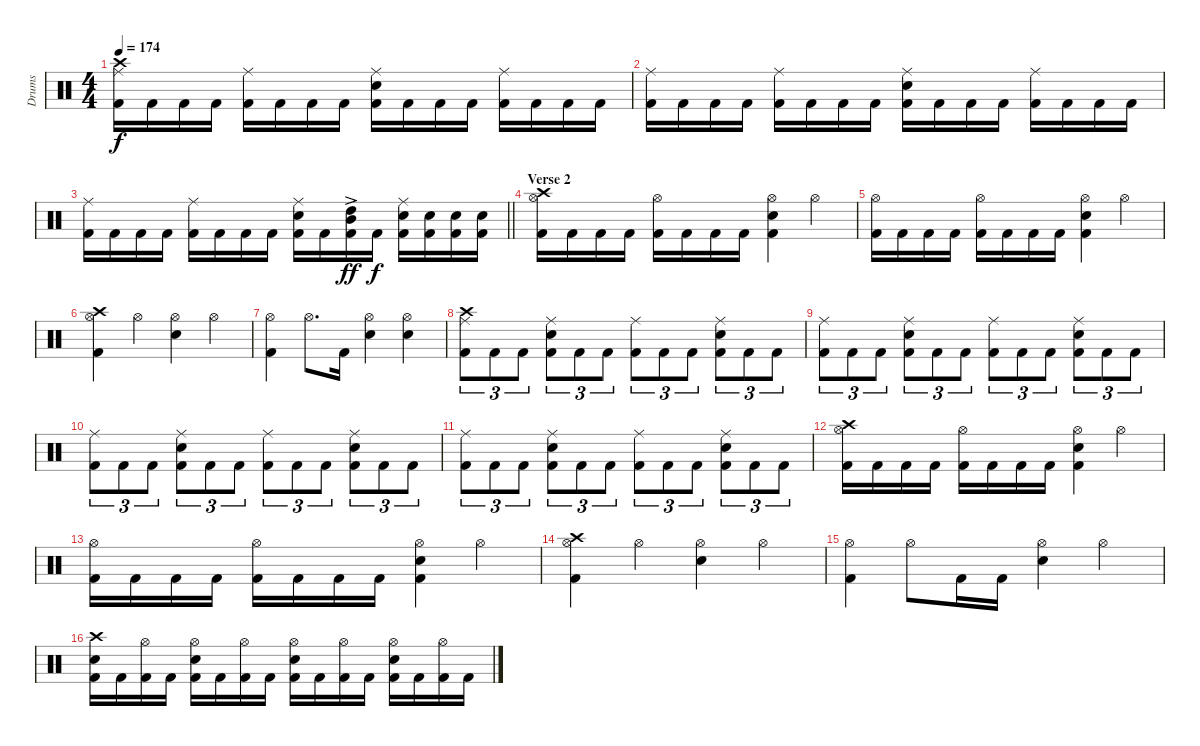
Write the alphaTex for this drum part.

\track ("Drums" "Drums") {instrument percussion}
\staff {score}
\articulation defaults
\ts (4 4)
\tempo 174
\clef neutral
\ks c
("Crash high (hit)" "Ride (middle)" "Kick (hit) 2").16{dy f} "Kick (hit) 2".16 "Kick (hit) 2".16 "Kick (hit) 2".16 ("Ride (middle)" "Kick (hit) 2").16 "Kick (hit) 2".16 "Kick (hit) 2".16 "Kick (hit) 2".16 ("Ride (middle)" "Snare (hit) 2" "Kick (hit) 2").16 "Kick (hit) 2".16 "Kick (hit) 2".16 "Kick (hit) 2".16 ("Ride (middle)" "Kick (hit) 2").16 "Kick (hit) 2".16 "Kick (hit) 2".16 "Kick (hit) 2".16 |
("Ride (middle)" "Kick (hit) 2").16 "Kick (hit) 2".16 "Kick (hit) 2".16 "Kick (hit) 2".16 ("Ride (middle)" "Kick (hit) 2").16 "Kick (hit) 2".16 "Kick (hit) 2".16 "Kick (hit) 2".16 ("Ride (middle)" "Snare (hit) 2" "Kick (hit) 2").16 "Kick (hit) 2".16 "Kick (hit) 2".16 "Kick (hit) 2".16 ("Ride (middle)" "Kick (hit) 2").16 "Kick (hit) 2".16 "Kick (hit) 2".16 "Kick (hit) 2".16 |
\barLineRight lightlight
("Ride (middle)" "Kick (hit) 2").16 "Kick (hit) 2".16 "Kick (hit) 2".16 "Kick (hit) 2".16 ("Ride (middle)" "Kick (hit) 2").16 "Kick (hit) 2".16 "Kick (hit) 2".16 "Kick (hit) 2".16 ("Ride (middle)" "Snare (hit) 2" "Kick (hit) 2").16 "Kick (hit) 2".16 ("High Tom (hit)"{ac} "Mid Tom (hit)"{ac} "Kick (hit) 2").16{dy ff} "Kick (hit) 2".16{dy f} ("Ride (middle)" "Snare (hit) 2" "Kick (hit) 2").16 ("Snare (hit) 2" "Kick (hit) 2").16 ("Snare (hit) 2" "Kick (hit) 2").16 ("Snare (hit) 2" "Kick (hit) 2").16 |
\section ("" "Verse 2")
("Hi-Hat (open)" "Crash high (hit)" "Kick (hit) 2").16 "Kick (hit) 2".16 "Kick (hit) 2".16 "Kick (hit) 2".16 ("Hi-Hat (open)" "Kick (hit) 2").16 "Kick (hit) 2".16 "Kick (hit) 2".16 "Kick (hit) 2".16 ("Hi-Hat (open)" "Snare (hit) 2" "Kick (hit) 2").4 "Hi-Hat (open)".4 |
("Hi-Hat (open)" "Kick (hit) 2").16 "Kick (hit) 2".16 "Kick (hit) 2".16 "Kick (hit) 2".16 ("Hi-Hat (open)" "Kick (hit) 2").16 "Kick (hit) 2".16 "Kick (hit) 2".16 "Kick (hit) 2".16 ("Hi-Hat (open)" "Snare (hit) 2" "Kick (hit) 2").4 "Hi-Hat (open)".4 |
("Hi-Hat (open)" "Crash high (hit)" "Kick (hit) 2").4 "Hi-Hat (open)".4 ("Hi-Hat (open)" "Snare (hit) 2").4 "Hi-Hat (open)".4 |
("Hi-Hat (open)" "Kick (hit) 2").4 "Hi-Hat (open)".8{d} "Kick (hit) 2".16 ("Hi-Hat (open)" "Snare (hit) 2").4 ("Hi-Hat (open)" "Snare (hit) 2").4 |
("Crash high (hit)" "Ride (middle)" "Kick (hit) 2").8{tu (3 2)} "Kick (hit) 2".8{tu (3 2)} "Kick (hit) 2".8{tu (3 2)} ("Ride (middle)" "Snare (hit) 2" "Kick (hit) 2").8{tu (3 2)} "Kick (hit) 2".8{tu (3 2)} "Kick (hit) 2".8{tu (3 2)} ("Ride (middle)" "Kick (hit) 2").8{tu (3 2)} "Kick (hit) 2".8{tu (3 2)} "Kick (hit) 2".8{tu (3 2)} ("Ride (middle)" "Snare (hit) 2" "Kick (hit) 2").8{tu (3 2)} "Kick (hit) 2".8{tu (3 2)} "Kick (hit) 2".8{tu (3 2)} |
("Ride (middle)" "Kick (hit) 2").8{tu (3 2)} "Kick (hit) 2".8{tu (3 2)} "Kick (hit) 2".8{tu (3 2)} ("Ride (middle)" "Snare (hit) 2" "Kick (hit) 2").8{tu (3 2)} "Kick (hit) 2".8{tu (3 2)} "Kick (hit) 2".8{tu (3 2)} ("Ride (middle)" "Kick (hit) 2").8{tu (3 2)} "Kick (hit) 2".8{tu (3 2)} "Kick (hit) 2".8{tu (3 2)} ("Ride (middle)" "Snare (hit) 2" "Kick (hit) 2").8{tu (3 2)} "Kick (hit) 2".8{tu (3 2)} "Kick (hit) 2".8{tu (3 2)} |
("Ride (middle)" "Kick (hit) 2").8{tu (3 2)} "Kick (hit) 2".8{tu (3 2)} "Kick (hit) 2".8{tu (3 2)} ("Ride (middle)" "Snare (hit) 2" "Kick (hit) 2").8{tu (3 2)} "Kick (hit) 2".8{tu (3 2)} "Kick (hit) 2".8{tu (3 2)} ("Ride (middle)" "Kick (hit) 2").8{tu (3 2)} "Kick (hit) 2".8{tu (3 2)} "Kick (hit) 2".8{tu (3 2)} ("Ride (middle)" "Snare (hit) 2" "Kick (hit) 2").8{tu (3 2)} "Kick (hit) 2".8{tu (3 2)} "Kick (hit) 2".8{tu (3 2)} |
("Ride (middle)" "Kick (hit) 2").8{tu (3 2)} "Kick (hit) 2".8{tu (3 2)} "Kick (hit) 2".8{tu (3 2)} ("Ride (middle)" "Snare (hit) 2" "Kick (hit) 2").8{tu (3 2)} "Kick (hit) 2".8{tu (3 2)} "Kick (hit) 2".8{tu (3 2)} ("Ride (middle)" "Kick (hit) 2").8{tu (3 2)} "Kick (hit) 2".8{tu (3 2)} "Kick (hit) 2".8{tu (3 2)} ("Ride (middle)" "Snare (hit) 2" "Kick (hit) 2").8{tu (3 2)} "Kick (hit) 2".8{tu (3 2)} "Kick (hit) 2".8{tu (3 2)} |
("Hi-Hat (open)" "Crash high (hit)" "Kick (hit) 2").16 "Kick (hit) 2".16 "Kick (hit) 2".16 "Kick (hit) 2".16 ("Hi-Hat (open)" "Kick (hit) 2").16 "Kick (hit) 2".16 "Kick (hit) 2".16 "Kick (hit) 2".16 ("Hi-Hat (open)" "Snare (hit) 2" "Kick (hit) 2").4 "Hi-Hat (open)".4 |
("Hi-Hat (open)" "Kick (hit) 2").16 "Kick (hit) 2".16 "Kick (hit) 2".16 "Kick (hit) 2".16 ("Hi-Hat (open)" "Kick (hit) 2").16 "Kick (hit) 2".16 "Kick (hit) 2".16 "Kick (hit) 2".16 ("Hi-Hat (open)" "Snare (hit) 2" "Kick (hit) 2").4 "Hi-Hat (open)".4 |
("Hi-Hat (open)" "Crash high (hit)" "Kick (hit) 2").4 "Hi-Hat (open)".4 ("Hi-Hat (open)" "Snare (hit) 2").4 "Hi-Hat (open)".4 |
("Hi-Hat (open)" "Kick (hit) 2").4 "Hi-Hat (open)".8 "Kick (hit) 2".16 "Kick (hit) 2".16 ("Hi-Hat (open)" "Snare (hit) 2").4 "Hi-Hat (open)".4 |
("Crash high (hit)" "Snare (hit) 2" "Kick (hit) 2").16 "Kick (hit) 2".16 ("Hi-Hat (open)" "Kick (hit) 2").16 "Kick (hit) 2".16 ("Hi-Hat (open)" "Snare (hit) 2" "Kick (hit) 2").16 "Kick (hit) 2".16 ("Hi-Hat (open)" "Kick (hit) 2").16 "Kick (hit) 2".16 ("Hi-Hat (open)" "Snare (hit) 2" "Kick (hit) 2").16 "Kick (hit) 2".16 ("Hi-Hat (open)" "Kick (hit) 2").16 "Kick (hit) 2".16 ("Hi-Hat (open)" "Snare (hit) 2" "Kick (hit) 2").16 "Kick (hit) 2".16 ("Hi-Hat (open)" "Kick (hit) 2").16 "Kick (hit) 2".16
